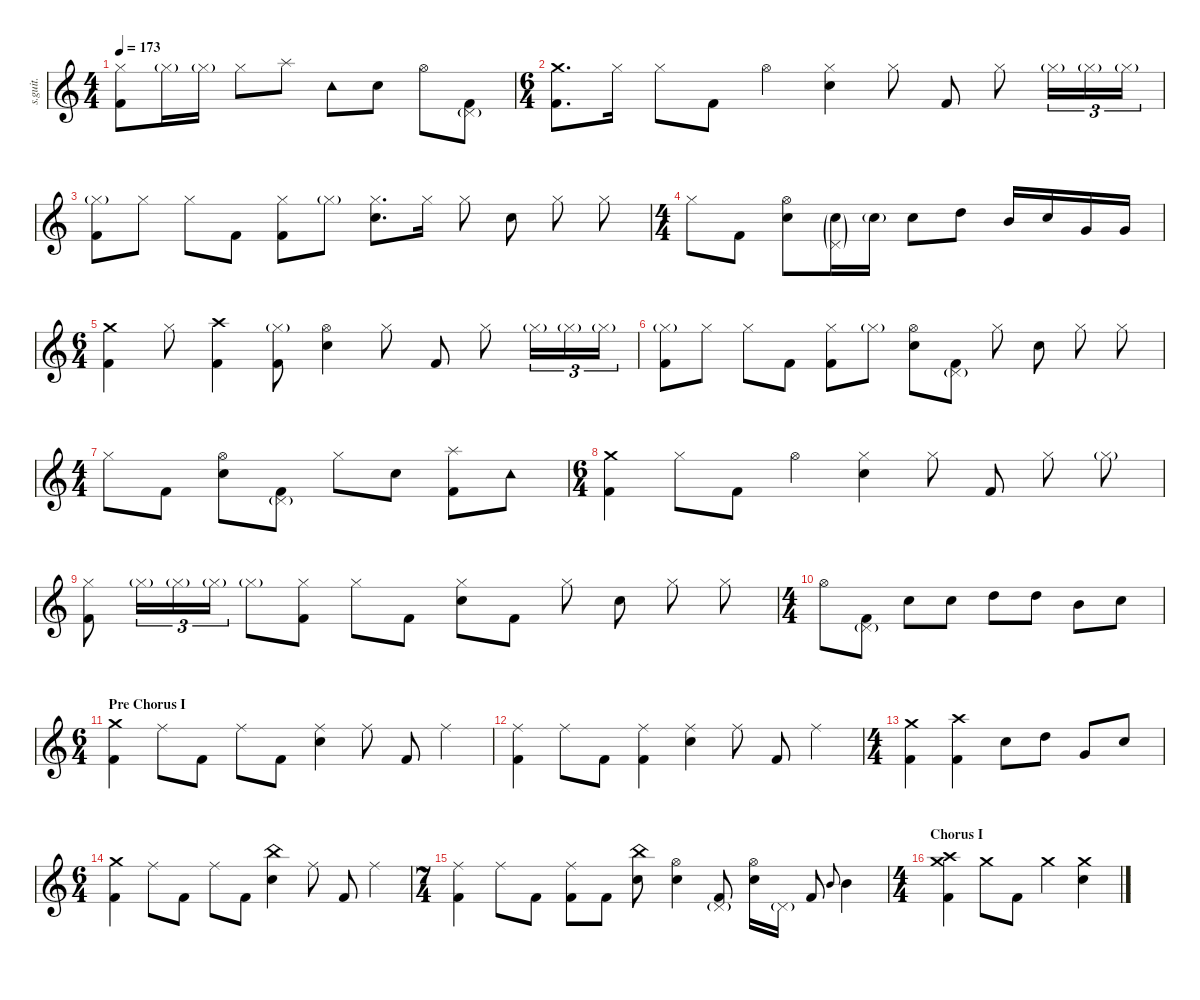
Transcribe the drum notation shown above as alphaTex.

\defaultSystemsLayout 4
\hideDynamics
\bracketExtendMode nobrackets
\track ("II" "s.guit.") {instrument percussion}
\staff {score}
\articulation defaults
\ts (4 4)
\beaming (8 2 2 2 2)
\tempo 173
\clef g2
\ks c
("Kick (hit) 2" "Hi-Hat (closed)").8{lyrics (0 "") lyrics (1 "") lyrics (2 "") lyrics (3 "") lyrics (4 "") dy mf} "Hi-Hat (closed)"{g}.16{lyrics (0 "") lyrics (1 "") lyrics (2 "") lyrics (3 "") lyrics (4 "")} "Hi-Hat (closed)"{g}.16{lyrics (0 "") lyrics (1 "") lyrics (2 "") lyrics (3 "") lyrics (4 "")} "Hi-Hat (closed)".8{lyrics (0 "") lyrics (1 "") lyrics (2 "") lyrics (3 "") lyrics (4 "")} "Splash (hit)".8{lyrics (0 "") lyrics (1 "") lyrics (2 "") lyrics (3 "") lyrics (4 "")} "Tambourine (hit)".8{lyrics (0 "") lyrics (1 "") lyrics (2 "") lyrics (3 "") lyrics (4 "")} "Snare (hit) 2".8{lyrics (0 "") lyrics (1 "") lyrics (2 "") lyrics (3 "") lyrics (4 "")} "Hi-Hat (open)".8{lyrics (0 "") lyrics (1 "") lyrics (2 "") lyrics (3 "") lyrics (4 "")} ("Kick (hit) 2" "Pedal Hi-Hat (hit)"{g}).8{lyrics (0 "") lyrics (1 "") lyrics (2 "") lyrics (3 "") lyrics (4 "")} |
\ts (6 4)
\beaming (8 2 2 2 2)
("Crash medium (hit)" "Kick (hit) 2").8{d lyrics (0 "") lyrics (1 "") lyrics (2 "") lyrics (3 "") lyrics (4 "")} "Hi-Hat (closed)".16{lyrics (0 "") lyrics (1 "") lyrics (2 "") lyrics (3 "") lyrics (4 "")} "Hi-Hat (closed)".8{lyrics (0 "") lyrics (1 "") lyrics (2 "") lyrics (3 "") lyrics (4 "")} "Kick (hit) 2".8{lyrics (0 "") lyrics (1 "") lyrics (2 "") lyrics (3 "") lyrics (4 "")} "Hi-Hat (open)".4{lyrics (0 "") lyrics (1 "") lyrics (2 "") lyrics (3 "") lyrics (4 "")} ("Snare (hit) 2" "Hi-Hat (closed)").4{lyrics (0 "") lyrics (1 "") lyrics (2 "") lyrics (3 "") lyrics (4 "")} "Hi-Hat (closed)".8{lyrics (0 "") lyrics (1 "") lyrics (2 "") lyrics (3 "") lyrics (4 "")} "Kick (hit) 2".8{lyrics (0 "") lyrics (1 "") lyrics (2 "") lyrics (3 "") lyrics (4 "")} "Hi-Hat (closed)".8{lyrics (0 "") lyrics (1 "") lyrics (2 "") lyrics (3 "") lyrics (4 "")} "Hi-Hat (closed)"{g}.16{tu (3 2) lyrics (0 "") lyrics (1 "") lyrics (2 "") lyrics (3 "") lyrics (4 "")} "Hi-Hat (closed)"{g}.16{tu (3 2) lyrics (0 "") lyrics (1 "") lyrics (2 "") lyrics (3 "") lyrics (4 "")} "Hi-Hat (closed)"{g}.16{tu (3 2) lyrics (0 "") lyrics (1 "") lyrics (2 "") lyrics (3 "") lyrics (4 "")} |
("Hi-Hat (closed)"{g} "Kick (hit) 2").8{lyrics (0 "") lyrics (1 "") lyrics (2 "") lyrics (3 "") lyrics (4 "")} "Hi-Hat (closed)".8{lyrics (0 "") lyrics (1 "") lyrics (2 "") lyrics (3 "") lyrics (4 "")} "Hi-Hat (closed)".8{lyrics (0 "") lyrics (1 "") lyrics (2 "") lyrics (3 "") lyrics (4 "")} "Kick (hit) 2".8{lyrics (0 "") lyrics (1 "") lyrics (2 "") lyrics (3 "") lyrics (4 "")} ("Hi-Hat (closed)" "Kick (hit) 2").8{lyrics (0 "") lyrics (1 "") lyrics (2 "") lyrics (3 "") lyrics (4 "")} "Hi-Hat (closed)"{g}.8{lyrics (0 "") lyrics (1 "") lyrics (2 "") lyrics (3 "") lyrics (4 "")} ("Hi-Hat (closed)" "Snare (hit) 2").8{d lyrics (0 "") lyrics (1 "") lyrics (2 "") lyrics (3 "") lyrics (4 "")} "Hi-Hat (closed)".16{lyrics (0 "") lyrics (1 "") lyrics (2 "") lyrics (3 "") lyrics (4 "")} "Hi-Hat (closed)".8{lyrics (0 "") lyrics (1 "") lyrics (2 "") lyrics (3 "") lyrics (4 "")} "Snare (hit) 2".8{lyrics (0 "") lyrics (1 "") lyrics (2 "") lyrics (3 "") lyrics (4 "")} "Hi-Hat (closed)".8{lyrics (0 "") lyrics (1 "") lyrics (2 "") lyrics (3 "") lyrics (4 "")} "Hi-Hat (closed)".8{lyrics (0 "") lyrics (1 "") lyrics (2 "") lyrics (3 "") lyrics (4 "")} |
\ts (4 4)
\beaming (8 2 2 2 2)
"Hi-Hat (closed)".8{lyrics (0 "") lyrics (1 "") lyrics (2 "") lyrics (3 "") lyrics (4 "")} "Kick (hit) 2".8{lyrics (0 "") lyrics (1 "") lyrics (2 "") lyrics (3 "") lyrics (4 "")} ("Snare (hit) 2" "Hi-Hat (open)").8{lyrics (0 "") lyrics (1 "") lyrics (2 "") lyrics (3 "") lyrics (4 "")} ("Snare (hit) 2"{g} "Pedal Hi-Hat (hit)"{g}).16{lyrics (0 "") lyrics (1 "") lyrics (2 "") lyrics (3 "") lyrics (4 "")} "Snare (hit) 2"{g}.16{lyrics (0 "") lyrics (1 "") lyrics (2 "") lyrics (3 "") lyrics (4 "")} "Snare (hit) 2".8{lyrics (0 "") lyrics (1 "") lyrics (2 "") lyrics (3 "") lyrics (4 "")} "High Tom (hit)".8{lyrics (0 "") lyrics (1 "") lyrics (2 "") lyrics (3 "") lyrics (4 "")} "Mid Tom (hit)".16{lyrics (0 "") lyrics (1 "") lyrics (2 "") lyrics (3 "") lyrics (4 "")} "Snare (hit) 2".16{lyrics (0 "") lyrics (1 "") lyrics (2 "") lyrics (3 "") lyrics (4 "")} "Very Low Tom (hit)".16{lyrics (0 "") lyrics (1 "") lyrics (2 "") lyrics (3 "") lyrics (4 "")} "Very Low Tom (hit)".16{lyrics (0 "") lyrics (1 "") lyrics (2 "") lyrics (3 "") lyrics (4 "")} |
\ts (6 4)
\beaming (8 2 2 2 2)
("Crash medium (hit)" "Kick (hit) 2").4{lyrics (0 "") lyrics (1 "") lyrics (2 "") lyrics (3 "") lyrics (4 "")} "Hi-Hat (closed)".8{lyrics (0 "") lyrics (1 "") lyrics (2 "") lyrics (3 "") lyrics (4 "")} ("Kick (hit) 2" "Crash high (hit)").4{lyrics (0 "") lyrics (1 "") lyrics (2 "") lyrics (3 "") lyrics (4 "")} ("Kick (hit) 2" "Hi-Hat (closed)"{g}).8{lyrics (0 "") lyrics (1 "") lyrics (2 "") lyrics (3 "") lyrics (4 "")} ("Snare (hit) 2" "Hi-Hat (open)").4{lyrics (0 "") lyrics (1 "") lyrics (2 "") lyrics (3 "") lyrics (4 "")} "Hi-Hat (closed)".8{lyrics (0 "") lyrics (1 "") lyrics (2 "") lyrics (3 "") lyrics (4 "")} "Kick (hit) 2".8{lyrics (0 "") lyrics (1 "") lyrics (2 "") lyrics (3 "") lyrics (4 "")} "Hi-Hat (closed)".8{lyrics (0 "") lyrics (1 "") lyrics (2 "") lyrics (3 "") lyrics (4 "")} "Hi-Hat (closed)"{g}.16{tu (3 2) lyrics (0 "") lyrics (1 "") lyrics (2 "") lyrics (3 "") lyrics (4 "")} "Hi-Hat (closed)"{g}.16{tu (3 2) lyrics (0 "") lyrics (1 "") lyrics (2 "") lyrics (3 "") lyrics (4 "")} "Hi-Hat (closed)"{g}.16{tu (3 2) lyrics (0 "") lyrics (1 "") lyrics (2 "") lyrics (3 "") lyrics (4 "")} |
("Hi-Hat (closed)"{g} "Kick (hit) 2").8{lyrics (0 "") lyrics (1 "") lyrics (2 "") lyrics (3 "") lyrics (4 "")} "Hi-Hat (closed)".8{lyrics (0 "") lyrics (1 "") lyrics (2 "") lyrics (3 "") lyrics (4 "")} "Hi-Hat (closed)".8{lyrics (0 "") lyrics (1 "") lyrics (2 "") lyrics (3 "") lyrics (4 "")} "Kick (hit) 2".8{lyrics (0 "") lyrics (1 "") lyrics (2 "") lyrics (3 "") lyrics (4 "")} ("Hi-Hat (closed)" "Kick (hit) 2").8{lyrics (0 "") lyrics (1 "") lyrics (2 "") lyrics (3 "") lyrics (4 "")} "Hi-Hat (closed)"{g}.8{lyrics (0 "") lyrics (1 "") lyrics (2 "") lyrics (3 "") lyrics (4 "")} ("Hi-Hat (open)" "Snare (hit) 2").8{lyrics (0 "") lyrics (1 "") lyrics (2 "") lyrics (3 "") lyrics (4 "")} ("Kick (hit) 2" "Pedal Hi-Hat (hit)"{g}).8{lyrics (0 "") lyrics (1 "") lyrics (2 "") lyrics (3 "") lyrics (4 "")} "Hi-Hat (closed)".8{lyrics (0 "") lyrics (1 "") lyrics (2 "") lyrics (3 "") lyrics (4 "")} "Snare (hit) 2".8{lyrics (0 "") lyrics (1 "") lyrics (2 "") lyrics (3 "") lyrics (4 "")} "Hi-Hat (closed)".8{lyrics (0 "") lyrics (1 "") lyrics (2 "") lyrics (3 "") lyrics (4 "")} "Hi-Hat (closed)".8{lyrics (0 "") lyrics (1 "") lyrics (2 "") lyrics (3 "") lyrics (4 "")} |
\ts (4 4)
\beaming (8 2 2 2 2)
"Hi-Hat (closed)".8{lyrics (0 "") lyrics (1 "") lyrics (2 "") lyrics (3 "") lyrics (4 "")} "Kick (hit) 2".8{lyrics (0 "") lyrics (1 "") lyrics (2 "") lyrics (3 "") lyrics (4 "")} ("Snare (hit) 2" "Hi-Hat (open)").8{lyrics (0 "") lyrics (1 "") lyrics (2 "") lyrics (3 "") lyrics (4 "")} ("Pedal Hi-Hat (hit)"{g} "Kick (hit) 2").8{lyrics (0 "") lyrics (1 "") lyrics (2 "") lyrics (3 "") lyrics (4 "")} "Hi-Hat (closed)".8{lyrics (0 "") lyrics (1 "") lyrics (2 "") lyrics (3 "") lyrics (4 "")} "Snare (hit) 2".8{lyrics (0 "") lyrics (1 "") lyrics (2 "") lyrics (3 "") lyrics (4 "")} ("Splash (hit)" "Kick (hit) 2").8{lyrics (0 "") lyrics (1 "") lyrics (2 "") lyrics (3 "") lyrics (4 "")} "Tambourine (hit)".8{lyrics (0 "") lyrics (1 "") lyrics (2 "") lyrics (3 "") lyrics (4 "")} |
\ts (6 4)
\beaming (8 2 2 2 2)
("Crash medium (hit)" "Kick (hit) 2").4{lyrics (0 "") lyrics (1 "") lyrics (2 "") lyrics (3 "") lyrics (4 "")} "Hi-Hat (closed)".8{lyrics (0 "") lyrics (1 "") lyrics (2 "") lyrics (3 "") lyrics (4 "")} "Kick (hit) 2".8{lyrics (0 "") lyrics (1 "") lyrics (2 "") lyrics (3 "") lyrics (4 "")} "Hi-Hat (open)".4{lyrics (0 "") lyrics (1 "") lyrics (2 "") lyrics (3 "") lyrics (4 "")} ("Snare (hit) 2" "Hi-Hat (closed)").4{lyrics (0 "") lyrics (1 "") lyrics (2 "") lyrics (3 "") lyrics (4 "")} "Hi-Hat (closed)".8{lyrics (0 "") lyrics (1 "") lyrics (2 "") lyrics (3 "") lyrics (4 "")} "Kick (hit) 2".8{lyrics (0 "") lyrics (1 "") lyrics (2 "") lyrics (3 "") lyrics (4 "")} "Hi-Hat (closed)".8{lyrics (0 "") lyrics (1 "") lyrics (2 "") lyrics (3 "") lyrics (4 "")} "Hi-Hat (closed)"{g}.8{lyrics (0 "") lyrics (1 "") lyrics (2 "") lyrics (3 "") lyrics (4 "")} |
("Hi-Hat (closed)" "Kick (hit) 2").8{lyrics (0 "") lyrics (1 "") lyrics (2 "") lyrics (3 "") lyrics (4 "")} "Hi-Hat (closed)"{g}.16{tu (3 2) lyrics (0 "") lyrics (1 "") lyrics (2 "") lyrics (3 "") lyrics (4 "")} "Hi-Hat (closed)"{g}.16{tu (3 2) lyrics (0 "") lyrics (1 "") lyrics (2 "") lyrics (3 "") lyrics (4 "")} "Hi-Hat (closed)"{g}.16{tu (3 2) lyrics (0 "") lyrics (1 "") lyrics (2 "") lyrics (3 "") lyrics (4 "")} "Hi-Hat (closed)"{g}.8{lyrics (0 "") lyrics (1 "") lyrics (2 "") lyrics (3 "") lyrics (4 "")} ("Hi-Hat (closed)" "Kick (hit) 2").8{lyrics (0 "") lyrics (1 "") lyrics (2 "") lyrics (3 "") lyrics (4 "")} "Hi-Hat (closed)".8{lyrics (0 "") lyrics (1 "") lyrics (2 "") lyrics (3 "") lyrics (4 "")} "Kick (hit) 2".8{lyrics (0 "") lyrics (1 "") lyrics (2 "") lyrics (3 "") lyrics (4 "")} ("Hi-Hat (closed)" "Snare (hit) 2").8{lyrics (0 "") lyrics (1 "") lyrics (2 "") lyrics (3 "") lyrics (4 "")} "Kick (hit) 2".8{lyrics (0 "") lyrics (1 "") lyrics (2 "") lyrics (3 "") lyrics (4 "")} "Hi-Hat (closed)".8{lyrics (0 "") lyrics (1 "") lyrics (2 "") lyrics (3 "") lyrics (4 "")} "Snare (hit) 2".8{lyrics (0 "") lyrics (1 "") lyrics (2 "") lyrics (3 "") lyrics (4 "")} "Hi-Hat (closed)".8{lyrics (0 "") lyrics (1 "") lyrics (2 "") lyrics (3 "") lyrics (4 "")} "Hi-Hat (closed)".8{lyrics (0 "") lyrics (1 "") lyrics (2 "") lyrics (3 "") lyrics (4 "")} |
\ts (4 4)
\beaming (8 2 2 2 2)
"Hi-Hat (open)".8{lyrics (0 "") lyrics (1 "") lyrics (2 "") lyrics (3 "") lyrics (4 "")} ("Kick (hit) 2" "Pedal Hi-Hat (hit)"{g}).8{lyrics (0 "") lyrics (1 "") lyrics (2 "") lyrics (3 "") lyrics (4 "")} "Snare (hit) 2".8{lyrics (0 "") lyrics (1 "") lyrics (2 "") lyrics (3 "") lyrics (4 "")} "Snare (hit) 2".8{lyrics (0 "") lyrics (1 "") lyrics (2 "") lyrics (3 "") lyrics (4 "")} "High Tom (hit)".8{lyrics (0 "") lyrics (1 "") lyrics (2 "") lyrics (3 "") lyrics (4 "")} "High Tom (hit)".8{lyrics (0 "") lyrics (1 "") lyrics (2 "") lyrics (3 "") lyrics (4 "")} "Mid Tom (hit)".8{lyrics (0 "") lyrics (1 "") lyrics (2 "") lyrics (3 "") lyrics (4 "")} "Snare (hit) 2".8{lyrics (0 "") lyrics (1 "") lyrics (2 "") lyrics (3 "") lyrics (4 "")} |
\ts (6 4)
\beaming (8 2 2 2 2)
\section ("" "Pre Chorus I")
("Kick (hit) 2" "Crash medium (hit)").4{lyrics (0 "") lyrics (1 "") lyrics (2 "") lyrics (3 "") lyrics (4 "")} "Ride (middle)".8{lyrics (0 "") lyrics (1 "") lyrics (2 "") lyrics (3 "") lyrics (4 "")} "Kick (hit) 2".8{lyrics (0 "") lyrics (1 "") lyrics (2 "") lyrics (3 "") lyrics (4 "")} "Ride (middle)".8{lyrics (0 "") lyrics (1 "") lyrics (2 "") lyrics (3 "") lyrics (4 "")} "Kick (hit) 2".8{lyrics (0 "") lyrics (1 "") lyrics (2 "") lyrics (3 "") lyrics (4 "")} ("Ride (middle)" "Snare (hit) 2").4{lyrics (0 "") lyrics (1 "") lyrics (2 "") lyrics (3 "") lyrics (4 "")} "Ride (middle)".8{lyrics (0 "") lyrics (1 "") lyrics (2 "") lyrics (3 "") lyrics (4 "")} "Kick (hit) 2".8{lyrics (0 "") lyrics (1 "") lyrics (2 "") lyrics (3 "") lyrics (4 "")} "Ride (middle)".4{lyrics (0 "") lyrics (1 "") lyrics (2 "") lyrics (3 "") lyrics (4 "")} |
("Kick (hit) 2" "Ride (middle)").4{lyrics (0 "") lyrics (1 "") lyrics (2 "") lyrics (3 "") lyrics (4 "")} "Ride (middle)".8{lyrics (0 "") lyrics (1 "") lyrics (2 "") lyrics (3 "") lyrics (4 "")} "Kick (hit) 2".8{lyrics (0 "") lyrics (1 "") lyrics (2 "") lyrics (3 "") lyrics (4 "")} ("Ride (middle)" "Kick (hit) 2").4{lyrics (0 "") lyrics (1 "") lyrics (2 "") lyrics (3 "") lyrics (4 "")} ("Ride (middle)" "Snare (hit) 2").4{lyrics (0 "") lyrics (1 "") lyrics (2 "") lyrics (3 "") lyrics (4 "")} "Ride (middle)".8{lyrics (0 "") lyrics (1 "") lyrics (2 "") lyrics (3 "") lyrics (4 "")} "Kick (hit) 2".8{lyrics (0 "") lyrics (1 "") lyrics (2 "") lyrics (3 "") lyrics (4 "")} "Ride (middle)".4{lyrics (0 "") lyrics (1 "") lyrics (2 "") lyrics (3 "") lyrics (4 "")} |
\ts (4 4)
\beaming (8 2 2 2 2)
("Kick (hit) 2" "Crash medium (hit)").4{lyrics (0 "") lyrics (1 "") lyrics (2 "") lyrics (3 "") lyrics (4 "")} ("Kick (hit) 2" "Crash high (hit)").4{lyrics (0 "") lyrics (1 "") lyrics (2 "") lyrics (3 "") lyrics (4 "")} "Snare (hit) 2".8{lyrics (0 "") lyrics (1 "") lyrics (2 "") lyrics (3 "") lyrics (4 "")} "High Tom (hit)".8{lyrics (0 "") lyrics (1 "") lyrics (2 "") lyrics (3 "") lyrics (4 "")} "Very Low Tom (hit)".8{lyrics (0 "") lyrics (1 "") lyrics (2 "") lyrics (3 "") lyrics (4 "")} "Snare (hit) 2".8{lyrics (0 "") lyrics (1 "") lyrics (2 "") lyrics (3 "") lyrics (4 "")} |
\ts (6 4)
\beaming (8 2 2 2 2)
("Kick (hit) 2" "Crash medium (hit)").4{lyrics (0 "") lyrics (1 "") lyrics (2 "") lyrics (3 "") lyrics (4 "")} "Ride (middle)".8{lyrics (0 "") lyrics (1 "") lyrics (2 "") lyrics (3 "") lyrics (4 "")} "Kick (hit) 2".8{lyrics (0 "") lyrics (1 "") lyrics (2 "") lyrics (3 "") lyrics (4 "")} "Ride (middle)".8{lyrics (0 "") lyrics (1 "") lyrics (2 "") lyrics (3 "") lyrics (4 "")} "Kick (hit) 2".8{lyrics (0 "") lyrics (1 "") lyrics (2 "") lyrics (3 "") lyrics (4 "")} ("Snare (hit) 2" "China (hit)").4{lyrics (0 "") lyrics (1 "") lyrics (2 "") lyrics (3 "") lyrics (4 "")} "Ride (middle)".8{lyrics (0 "") lyrics (1 "") lyrics (2 "") lyrics (3 "") lyrics (4 "")} "Kick (hit) 2".8{lyrics (0 "") lyrics (1 "") lyrics (2 "") lyrics (3 "") lyrics (4 "")} "Ride (middle)".4{lyrics (0 "") lyrics (1 "") lyrics (2 "") lyrics (3 "") lyrics (4 "")} |
\ts (7 4)
\beaming (8 2 2 2 2)
("Kick (hit) 2" "Ride (middle)").4{lyrics (0 "") lyrics (1 "") lyrics (2 "") lyrics (3 "") lyrics (4 "")} "Ride (middle)".8{lyrics (0 "") lyrics (1 "") lyrics (2 "") lyrics (3 "") lyrics (4 "")} "Kick (hit) 2".8{lyrics (0 "") lyrics (1 "") lyrics (2 "") lyrics (3 "") lyrics (4 "")} ("Ride (middle)" "Kick (hit) 2").8{lyrics (0 "") lyrics (1 "") lyrics (2 "") lyrics (3 "") lyrics (4 "")} "Kick (hit) 2".8{lyrics (0 "") lyrics (1 "") lyrics (2 "") lyrics (3 "") lyrics (4 "")} ("Snare (hit) 2" "China (hit)").8{lyrics (0 "") lyrics (1 "") lyrics (2 "") lyrics (3 "") lyrics (4 "")} ("Snare (hit) 2" "Hi-Hat (open)").4{lyrics (0 "") lyrics (1 "") lyrics (2 "") lyrics (3 "") lyrics (4 "")} ("Kick (hit) 2" "Pedal Hi-Hat (hit)"{g}).8{lyrics (0 "") lyrics (1 "") lyrics (2 "") lyrics (3 "") lyrics (4 "")} ("Snare (hit) 2" "Hi-Hat (open)").16{lyrics (0 "") lyrics (1 "") lyrics (2 "") lyrics (3 "") lyrics (4 "")} "Pedal Hi-Hat (hit)"{g}.16{lyrics (0 "") lyrics (1 "") lyrics (2 "") lyrics (3 "") lyrics (4 "") dy p} "Kick (hit) 2".8{lyrics (0 "") lyrics (1 "") lyrics (2 "") lyrics (3 "") lyrics (4 "") dy mf} "Mid Tom (hit)".8{lyrics (0 "") lyrics (1 "") lyrics (2 "") lyrics (3 "") lyrics (4 "") gr onbeat} "Mid Tom (hit)".4{lyrics (0 "") lyrics (1 "") lyrics (2 "") lyrics (3 "") lyrics (4 "")} |
\ts (4 4)
\beaming (8 2 2 2 2)
\section ("" "Chorus I")
("Kick (hit) 2" "Crash high (hit)" "Crash medium (hit)").4{lyrics (0 "") lyrics (1 "") lyrics (2 "") lyrics (3 "") lyrics (4 "")} "Crash medium (hit)".8{lyrics (0 "") lyrics (1 "") lyrics (2 "") lyrics (3 "") lyrics (4 "")} "Kick (hit) 2".8{lyrics (0 "") lyrics (1 "") lyrics (2 "") lyrics (3 "") lyrics (4 "")} "Crash medium (hit)".4{lyrics (0 "") lyrics (1 "") lyrics (2 "") lyrics (3 "") lyrics (4 "")} ("Snare (hit) 2" "Crash medium (hit)").4{lyrics (0 "") lyrics (1 "") lyrics (2 "") lyrics (3 "") lyrics (4 "")}
